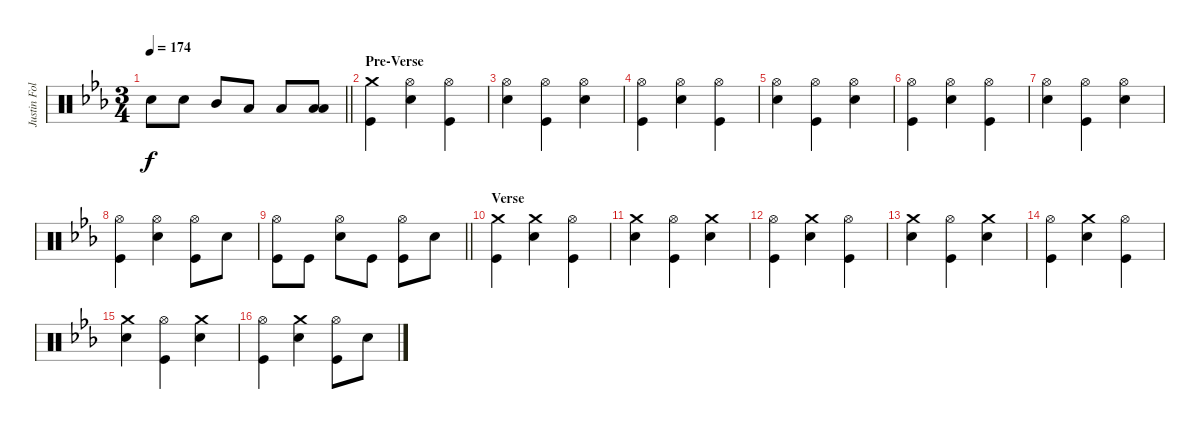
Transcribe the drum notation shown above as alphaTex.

\track ("Justin Foley" "Justin Fol") {instrument percussion}
\staff {score}
\articulation defaults
\ts (3 4)
\tempo 174
\clef neutral
\barLineRight lightlight
\ks cminor "Snare (hit) 2".8{dy f} "Snare (hit) 2".8 "Mid Tom (hit)".8 "Low Floor Tom (hit)".8 "Low Tom (hit)".8
("Low Floor Tom (hit)" "Low Tom (hit)").8 |
\section ("" "Pre-Verse")
("Crash medium (hit)" "Kick (hit)").4 ("Hi-Hat (open)" "Snare (hit) 2").4 ("Hi-Hat (open)" "Kick (hit)").4 |
("Hi-Hat (open)" "Snare (hit) 2").4 ("Hi-Hat (open)" "Kick (hit)").4 ("Hi-Hat (open)" "Snare (hit) 2").4 |
("Hi-Hat (open)" "Kick (hit)").4 ("Hi-Hat (open)" "Snare (hit) 2").4 ("Hi-Hat (open)" "Kick (hit)").4 |
("Hi-Hat (open)" "Snare (hit) 2").4 ("Hi-Hat (open)" "Kick (hit)").4 ("Hi-Hat (open)" "Snare (hit) 2").4 |
("Hi-Hat (open)" "Kick (hit)").4 ("Hi-Hat (open)" "Snare (hit) 2").4 ("Hi-Hat (open)" "Kick (hit)").4 |
("Hi-Hat (open)" "Snare (hit) 2").4 ("Hi-Hat (open)" "Kick (hit)").4 ("Hi-Hat (open)" "Snare (hit) 2").4 |
("Hi-Hat (open)" "Kick (hit)").4 ("Hi-Hat (open)" "Snare (hit) 2").4 ("Hi-Hat (open)" "Kick (hit)").8 "Snare (hit) 2".8 |
\barLineRight lightlight
("Kick (hit)" "Hi-Hat (open)").8 "Kick (hit)".8 ("Snare (hit) 2" "Hi-Hat (open)").8 "Kick (hit)".8 ("Kick (hit)" "Hi-Hat (open)").8 "Snare (hit) 2".8 |
\section ("" "Verse")
("Crash medium (hit)" "Kick (hit)").4 ("Crash medium (hit)" "Snare (hit) 2").4 ("Hi-Hat (open)" "Kick (hit)").4 |
("Crash medium (hit)" "Snare (hit) 2").4 ("Hi-Hat (open)" "Kick (hit)").4 ("Crash medium (hit)" "Snare (hit) 2").4 |
("Hi-Hat (open)" "Kick (hit)").4 ("Crash medium (hit)" "Snare (hit) 2").4 ("Hi-Hat (open)" "Kick (hit)").4 |
("Crash medium (hit)" "Snare (hit) 2").4 ("Hi-Hat (open)" "Kick (hit)").4 ("Crash medium (hit)" "Snare (hit) 2").4 |
("Hi-Hat (open)" "Kick (hit)").4 ("Crash medium (hit)" "Snare (hit) 2").4 ("Hi-Hat (open)" "Kick (hit)").4 |
("Crash medium (hit)" "Snare (hit) 2").4 ("Hi-Hat (open)" "Kick (hit)").4 ("Crash medium (hit)" "Snare (hit) 2").4 |
("Hi-Hat (open)" "Kick (hit)").4 ("Crash medium (hit)" "Snare (hit) 2").4 ("Hi-Hat (open)" "Kick (hit)").8 "Snare (hit) 2".8
